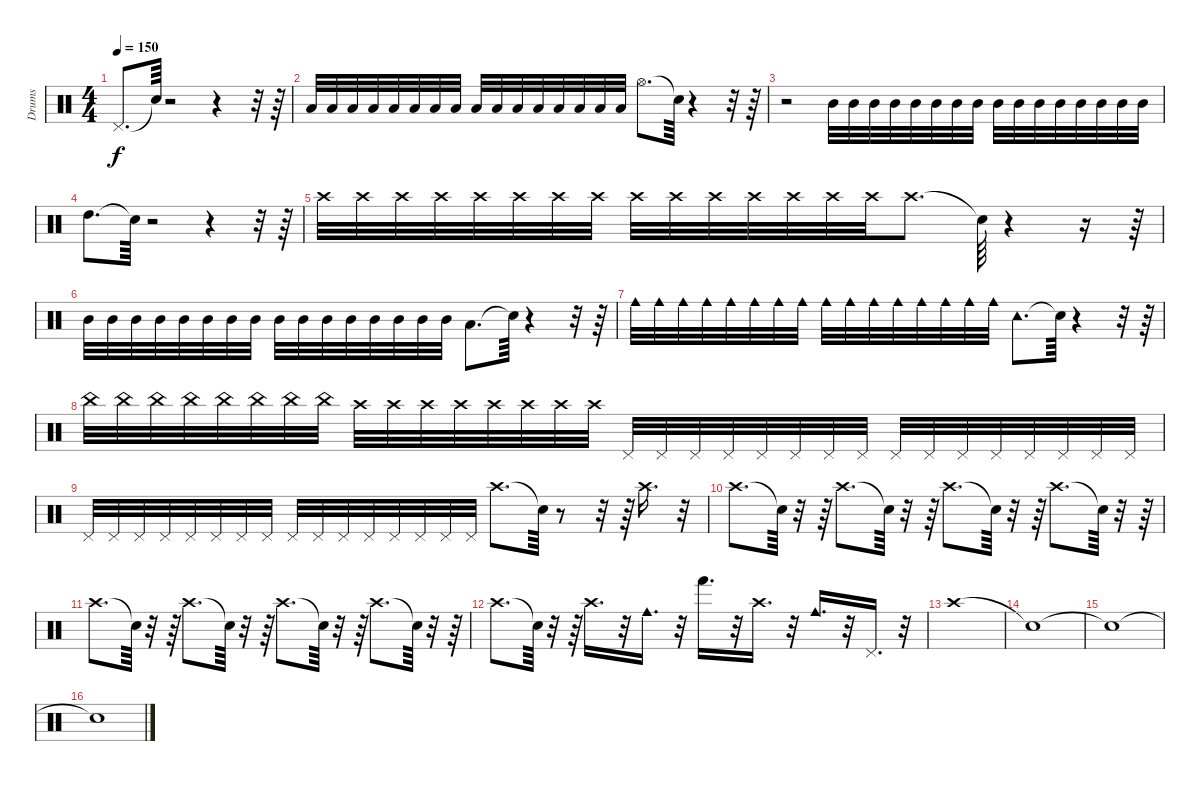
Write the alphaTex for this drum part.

\track ("Drums" "Drums") {instrument percussion}
\staff {score}
\articulation defaults
\ts (4 4)
\tempo 150
\clef neutral
\ks c "Pedal Hi-Hat (hit)".8{d dy f} "Snare (hit)"{t}.64
r.2 r.4 r.32 r.64 |
"Low Tom (hit)".32 "Low Tom (hit)".32 "Low Tom (hit)".32 "Low Tom (hit)".32 "Low Tom (hit)".32 "Low Tom (hit)".32 "Low Tom (hit)".32 "Low Tom (hit)".32 "Low Tom (hit)".32 "Low Tom (hit)".32 "Low Tom (hit)".32 "Low Tom (hit)".32 "Low Tom (hit)".32 "Low Tom (hit)".32 "Low Tom (hit)".32 "Low Tom (hit)".32 "Hi-Hat (open)".8{d} "Snare (hit)"{t}.64 r.4 r.32 r.64 |
r.2 "Mid Tom (hit)".32 "Mid Tom (hit)".32 "Mid Tom (hit)".32 "Mid Tom (hit)".32 "Mid Tom (hit)".32 "Mid Tom (hit)".32 "Mid Tom (hit)".32 "Mid Tom (hit)".32 "Mid Tom (hit)".32 "Mid Tom (hit)".32 "Mid Tom (hit)".32 "Mid Tom (hit)".32 "Mid Tom (hit)".32 "Mid Tom (hit)".32 "Mid Tom (hit)".32 "Mid Tom (hit)".32 |
"High Tom (hit)".8{d} "Snare (hit)"{t}.64 r.2 r.4 r.32 r.64 |
"Crash high (hit)".32 "Crash high (hit)".32 "Crash high (hit)".32 "Crash high (hit)".32 "Crash high (hit)".32 "Crash high (hit)".32 "Crash high (hit)".32 "Crash high (hit)".32 "Crash high (hit)".32 "Crash high (hit)".32 "Crash high (hit)".32 "Crash high (hit)".32 "Crash high (hit)".32 "Crash high (hit)".32 "Crash high (hit)".32 "Crash high (hit)".8{d} "Snare (hit)"{t}.64 r.4 r.16 r.64 |
"Mid Tom (hit)".32 "Mid Tom (hit)".32 "Mid Tom (hit)".32 "Mid Tom (hit)".32 "Mid Tom (hit)".32 "Mid Tom (hit)".32 "Mid Tom (hit)".32 "Mid Tom (hit)".32 "Mid Tom (hit)".32 "Mid Tom (hit)".32 "Mid Tom (hit)".32 "Mid Tom (hit)".32 "Mid Tom (hit)".32 "Mid Tom (hit)".32 "Mid Tom (hit)".32 "Mid Tom (hit)".32 "Low Tom (hit)".8{d} "Snare (hit)"{t}.64 r.4 r.32 r.64 |
"Cowbell medium (hit)".32 "Cowbell medium (hit)".32 "Cowbell medium (hit)".32 "Cowbell medium (hit)".32 "Cowbell medium (hit)".32 "Cowbell medium (hit)".32 "Cowbell medium (hit)".32 "Cowbell medium (hit)".32 "Cowbell medium (hit)".32 "Cowbell medium (hit)".32 "Cowbell medium (hit)".32 "Cowbell medium (hit)".32 "Cowbell medium (hit)".32 "Cowbell medium (hit)".32 "Cowbell medium (hit)".32 "Cowbell medium (hit)".32 "Tambourine (hit)".8{d} "Snare (hit)"{t}.64 r.4 r.32 r.64 |
"China (hit)".32 "China (hit)".32 "China (hit)".32 "China (hit)".32 "China (hit)".32 "China (hit)".32 "China (hit)".32 "China (hit)".32 "Crash high (hit)".32 "Crash high (hit)".32 "Crash high (hit)".32 "Crash high (hit)".32 "Crash high (hit)".32 "Crash high (hit)".32 "Crash high (hit)".32 "Crash high (hit)".32 "Pedal Hi-Hat (hit)".32 "Pedal Hi-Hat (hit)".32 "Pedal Hi-Hat (hit)".32 "Pedal Hi-Hat (hit)".32 "Pedal Hi-Hat (hit)".32 "Pedal Hi-Hat (hit)".32 "Pedal Hi-Hat (hit)".32 "Pedal Hi-Hat (hit)".32 "Pedal Hi-Hat (hit)".32 "Pedal Hi-Hat (hit)".32 "Pedal Hi-Hat (hit)".32 "Pedal Hi-Hat (hit)".32 "Pedal Hi-Hat (hit)".32 "Pedal Hi-Hat (hit)".32 "Pedal Hi-Hat (hit)".32 "Pedal Hi-Hat (hit)".32 |
"Pedal Hi-Hat (hit)".32 "Pedal Hi-Hat (hit)".32 "Pedal Hi-Hat (hit)".32 "Pedal Hi-Hat (hit)".32 "Pedal Hi-Hat (hit)".32 "Pedal Hi-Hat (hit)".32 "Pedal Hi-Hat (hit)".32 "Pedal Hi-Hat (hit)".32 "Pedal Hi-Hat (hit)".32 "Pedal Hi-Hat (hit)".32 "Pedal Hi-Hat (hit)".32 "Pedal Hi-Hat (hit)".32 "Pedal Hi-Hat (hit)".32 "Pedal Hi-Hat (hit)".32 "Pedal Hi-Hat (hit)".32 "Pedal Hi-Hat (hit)".32 "Crash high (hit)".8{d} "Snare (hit)"{t}.64 r.8 r.32 r.64 "Crash high (hit)".16{d} r.32 |
"Crash high (hit)".8{d} "Snare (hit)"{t}.64 r.32 r.64 "Crash high (hit)".8{d} "Snare (hit)"{t}.64 r.32 r.64 "Crash high (hit)".8{d} "Snare (hit)"{t}.64 r.32 r.64 "Crash high (hit)".8{d} "Snare (hit)"{t}.64 r.32 r.64 |
"Crash high (hit)".8{d} "Snare (hit)"{t}.64 r.32 r.64 "Crash high (hit)".8{d} "Snare (hit)"{t}.64 r.32 r.64 "Crash high (hit)".8{d} "Snare (hit)"{t}.64 r.32 r.64 "Crash high (hit)".8{d} "Snare (hit)"{t}.64 r.32 r.64 |
"Crash high (hit)".8{d} "Snare (hit)"{t}.64 r.32 r.64 "Crash high (hit)".16{d} r.32 "Cowbell medium (hit)".16{d} r.32 "Hand (hit)".16{d} r.32 "Crash high (hit)".16{d} r.32 "Cowbell medium (hit)".16{d} r.32 "Pedal Hi-Hat (hit)".16{d} r.32 |
"Crash high (hit)".1 |
"Snare (hit)"{t}.1 |
"Snare (hit)"{t}.1 |
"Snare (hit)"{t}.1
